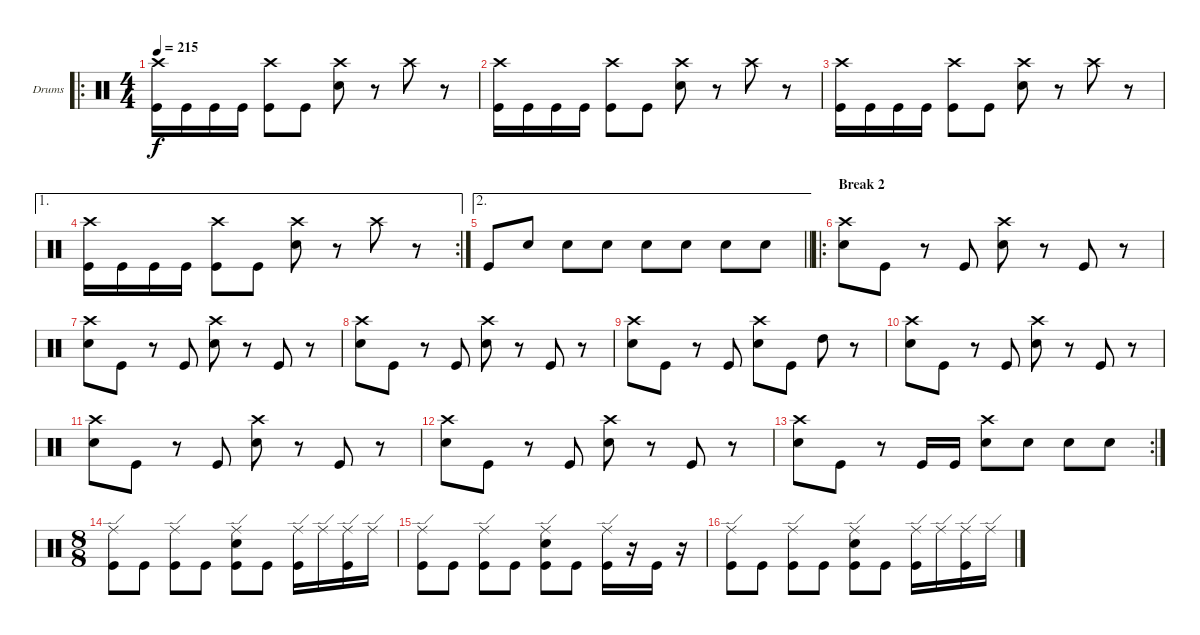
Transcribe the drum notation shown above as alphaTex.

\bracketExtendMode groupsimilarinstruments
\firstSystemTrackNameOrientation horizontal
\otherSystemsTrackNameOrientation horizontal
\track ("Dave McClain" "Drums") {instrument percussion}
\staff {score}
\articulation defaults
\ro
\ts (4 4)
\tempo 215
\clef neutral
\ks c
("Crash high (hit)" "Kick (hit)").16{dy f} "Kick (hit)".16 "Kick (hit)".16 "Kick (hit)".16 ("Crash high (hit)" "Kick (hit)").8 "Kick (hit)".8 ("Crash high (hit)" "Snare (hit) 2").8 r.8 "Crash high (hit)".8 r.8 |
("Crash high (hit)" "Kick (hit)").16 "Kick (hit)".16 "Kick (hit)".16 "Kick (hit)".16 ("Crash high (hit)" "Kick (hit)").8 "Kick (hit)".8 ("Crash high (hit)" "Snare (hit) 2").8 r.8 "Crash high (hit)".8 r.8 |
("Crash high (hit)" "Kick (hit)").16 "Kick (hit)".16 "Kick (hit)".16 "Kick (hit)".16 ("Crash high (hit)" "Kick (hit)").8 "Kick (hit)".8 ("Crash high (hit)" "Snare (hit) 2").8 r.8 "Crash high (hit)".8 r.8 |
\ae 1
\rc 2
("Crash high (hit)" "Kick (hit)").16 "Kick (hit)".16 "Kick (hit)".16 "Kick (hit)".16 ("Crash high (hit)" "Kick (hit)").8 "Kick (hit)".8 ("Crash high (hit)" "Snare (hit) 2").8 r.8 "Crash high (hit)".8 r.8 |
\ae 2
\barLineRight lightlight "Kick (hit)".8 "Snare (hit) 2".8 "Snare (hit) 2".8 "Snare (hit) 2".8 "Snare (hit) 2".8 "Snare (hit) 2".8 "Snare (hit) 2".8 "Snare (hit) 2".8
|
\ro
\section ("" "Break 2")
("Crash high (hit)" "Snare (hit) 2").8 "Kick (hit)".8 r.8 "Kick (hit)".8 ("Crash high (hit)" "Snare (hit) 2").8 r.8 "Kick (hit)".8 r.8 |
("Crash high (hit)" "Snare (hit) 2").8 "Kick (hit)".8 r.8 "Kick (hit)".8 ("Crash high (hit)" "Snare (hit) 2").8 r.8 "Kick (hit)".8 r.8 |
("Crash high (hit)" "Snare (hit) 2").8 "Kick (hit)".8 r.8 "Kick (hit)".8 ("Crash high (hit)" "Snare (hit) 2").8 r.8 "Kick (hit)".8 r.8 |
("Crash high (hit)" "Snare (hit) 2").8 "Kick (hit)".8 r.8 "Kick (hit)".8 ("Crash high (hit)" "Snare (hit) 2").8 "Kick (hit)".8 "High Tom (hit)".8 r.8 |
("Crash high (hit)" "Snare (hit) 2").8 "Kick (hit)".8 r.8 "Kick (hit)".8 ("Crash high (hit)" "Snare (hit) 2").8 r.8 "Kick (hit)".8 r.8 |
("Crash high (hit)" "Snare (hit) 2").8 "Kick (hit)".8 r.8 "Kick (hit)".8 ("Crash high (hit)" "Snare (hit) 2").8 r.8 "Kick (hit)".8 r.8 |
("Crash high (hit)" "Snare (hit) 2").8 "Kick (hit)".8 r.8 "Kick (hit)".8 ("Crash high (hit)" "Snare (hit) 2").8 r.8 "Kick (hit)".8 r.8 |
\rc 2
("Crash high (hit)" "Snare (hit) 2").8 "Kick (hit)".8 r.8 "Kick (hit)".16 "Kick (hit)".16 ("Crash high (hit)" "Snare (hit) 2").8 "Snare (hit) 2".8 "Snare (hit) 2".8 "Snare (hit) 2".8 |
\ts (8 8)
\beaming (8 2 2 2 2)
("Ride (edge)" "Kick (hit)").8 "Kick (hit)".8 ("Ride (edge)" "Kick (hit)").8 "Kick (hit)".8 ("Ride (edge)" "Snare (hit) 2" "Kick (hit)").8 "Kick (hit)".8 ("Ride (edge)" "Kick (hit)").16 "Ride (edge)".16 ("Ride (edge)" "Kick (hit)").16 "Ride (edge)".16 |
("Ride (edge)" "Kick (hit)").8 "Kick (hit)".8 ("Ride (edge)" "Kick (hit)").8 "Kick (hit)".8 ("Ride (edge)" "Snare (hit) 2" "Kick (hit)").8 "Kick (hit)".8 ("Ride (edge)" "Kick (hit)").16 r.16 "Kick (hit)".16 r.16 |
("Ride (edge)" "Kick (hit)").8 "Kick (hit)".8 ("Ride (edge)" "Kick (hit)").8 "Kick (hit)".8 ("Ride (edge)" "Snare (hit) 2" "Kick (hit)").8 "Kick (hit)".8 ("Ride (edge)" "Kick (hit)").16 "Ride (edge)".16 ("Ride (edge)" "Kick (hit)").16 "Ride (edge)".16
